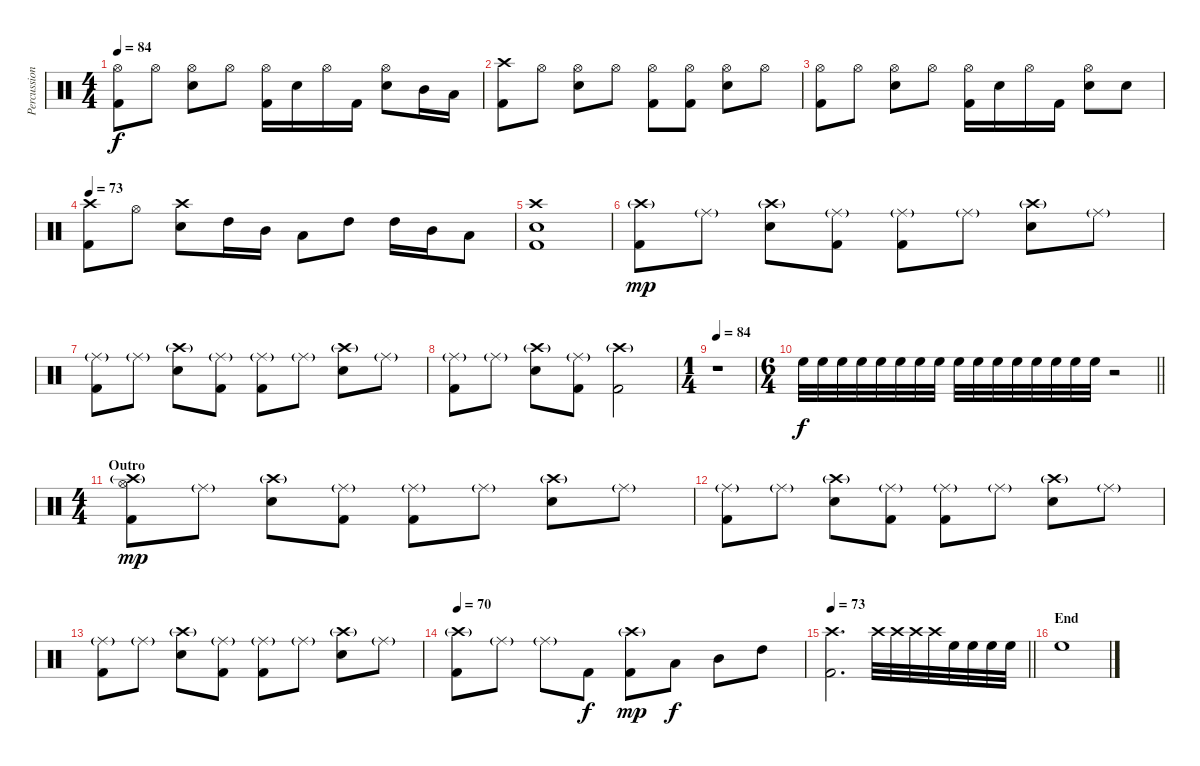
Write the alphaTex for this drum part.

\track ("Percussion" "Percussion") {instrument percussion}
\staff {score}
\articulation defaults
\ts (4 4)
\tempo 84
\clef neutral
\ks c
("Hi-Hat (open)" "Kick (hit) 2").8{dy f} "Hi-Hat (open)".8 ("Hi-Hat (open)" "Electric Snare (hit)").8 "Hi-Hat (open)".8 ("Hi-Hat (open)" "Kick (hit) 2").16 "Electric Snare (hit)".16 "Hi-Hat (open)".16 "Kick (hit) 2".16 ("Hi-Hat (open)" "Electric Snare (hit)").8 "Mid Tom (hit)".16 "Low Tom (hit)".16 |
("Crash high (hit)" "Kick (hit) 2").8 "Hi-Hat (open)".8 ("Hi-Hat (open)" "Electric Snare (hit)").8 "Hi-Hat (open)".8 ("Hi-Hat (open)" "Kick (hit) 2").8 ("Hi-Hat (open)" "Kick (hit) 2").8 ("Hi-Hat (open)" "Electric Snare (hit)").8 "Hi-Hat (open)".8 |
("Hi-Hat (open)" "Kick (hit) 2").8 "Hi-Hat (open)".8 ("Hi-Hat (open)" "Electric Snare (hit)").8 "Hi-Hat (open)".8 ("Hi-Hat (open)" "Kick (hit) 2").16 "Electric Snare (hit)".16 "Hi-Hat (open)".16 "Kick (hit) 2".16 ("Hi-Hat (open)" "Electric Snare (hit)").8 "Electric Snare (hit)".8 |
\tempo 73
("Crash high (hit)" "Kick (hit) 2").8 "Hi-Hat (open)".8 ("Crash high (hit)" "Electric Snare (hit)").8 "High Tom (hit)".16 "Mid Tom (hit)".16 "Low Tom (hit)".8 "High Tom (hit)".8 "High Tom (hit)".16 "Mid Tom (hit)".16 "Low Tom (hit)".8 |
("Crash high (hit)" "Electric Snare (hit)" "Kick (hit) 2").1 |
("Crash high (hit)"{g} "Kick (hit) 2").8{dy mp} "Ride (middle)"{g}.8 ("Crash high (hit)"{g} "Electric Snare (hit)").8 ("Ride (middle)"{g} "Kick (hit) 2").8 ("Ride (middle)"{g} "Kick (hit) 2").8 "Ride (middle)"{g}.8 ("Crash high (hit)"{g} "Electric Snare (hit)").8 "Ride (middle)"{g}.8 |
("Ride (middle)"{g} "Kick (hit) 2").8 "Ride (middle)"{g}.8 ("Crash high (hit)"{g} "Electric Snare (hit)").8 ("Ride (middle)"{g} "Kick (hit) 2").8 ("Ride (middle)"{g} "Kick (hit) 2").8 "Ride (middle)"{g}.8 ("Crash high (hit)"{g} "Electric Snare (hit)").8 "Ride (middle)"{g}.8 |
("Ride (middle)"{g} "Kick (hit) 2").8 "Ride (middle)"{g}.8 ("Crash high (hit)"{g} "Electric Snare (hit)").8 ("Ride (middle)"{g} "Kick (hit) 2").8 ("Crash high (hit)"{g} "Kick (hit) 2").2 |
\ts (1 4)
\tempo 84
r.1{volume 0} |
\ts (6 4)
\barLineRight lightlight "High Floor Tom (hit)".32{dy f volume 16} "High Floor Tom (hit)".32 "High Floor Tom (hit)".32 "High Floor Tom (hit)".32 "High Floor Tom (hit)".32 "High Floor Tom (hit)".32 "High Floor Tom (hit)".32 "High Floor Tom (hit)".32 "High Floor Tom (hit)".32 "High Floor Tom (hit)".32 "High Floor Tom (hit)".32 "High Floor Tom (hit)".32 "High Floor Tom (hit)".32 "High Floor Tom (hit)".32 "High Floor Tom (hit)".32 "High Floor Tom (hit)".32
r.2 |
\ts (4 4)
\section ("" "Outro")
("Crash high (hit)"{g} "Hi-Hat (open)" "Kick (hit) 2").8{dy mp} "Ride (middle)"{g}.8 ("Crash high (hit)"{g} "Electric Snare (hit)").8 ("Ride (middle)"{g} "Kick (hit) 2").8 ("Ride (middle)"{g} "Kick (hit) 2").8 "Ride (middle)"{g}.8 ("Crash high (hit)"{g} "Electric Snare (hit)").8 "Ride (middle)"{g}.8 |
("Ride (middle)"{g} "Kick (hit) 2").8 "Ride (middle)"{g}.8 ("Crash high (hit)"{g} "Electric Snare (hit)").8 ("Ride (middle)"{g} "Kick (hit) 2").8 ("Ride (middle)"{g} "Kick (hit) 2").8 "Ride (middle)"{g}.8 ("Crash high (hit)"{g} "Electric Snare (hit)").8 "Ride (middle)"{g}.8 |
("Ride (middle)"{g} "Kick (hit) 2").8 "Ride (middle)"{g}.8 ("Crash high (hit)"{g} "Electric Snare (hit)").8 ("Ride (middle)"{g} "Kick (hit) 2").8 ("Ride (middle)"{g} "Kick (hit) 2").8 "Ride (middle)"{g}.8 ("Crash high (hit)"{g} "Electric Snare (hit)").8 "Ride (middle)"{g}.8 |
\tempo 70
("Crash high (hit)"{g} "Kick (hit) 2").8 "Ride (middle)"{g}.8 "Ride (middle)"{g}.8 "Kick (hit) 2".8{dy f} ("Crash high (hit)"{g} "Kick (hit) 2").8{dy mp} "Low Tom (hit)".8{dy f} "Mid Tom (hit)".8 "High Tom (hit)".8 |
\tempo 73
\barLineRight lightlight
("Crash high (hit)" "Kick (hit) 2").2{d} "Crash high (hit)".32{volume 3} "Crash high (hit)".32{volume 16} "Crash high (hit)".32 "Crash high (hit)".32 "High Floor Tom (hit)".32 "High Floor Tom (hit)".32 "High Floor Tom (hit)".32 "High Floor Tom (hit)".32 |
\section ("" "End")
"High Floor Tom (hit)".1
